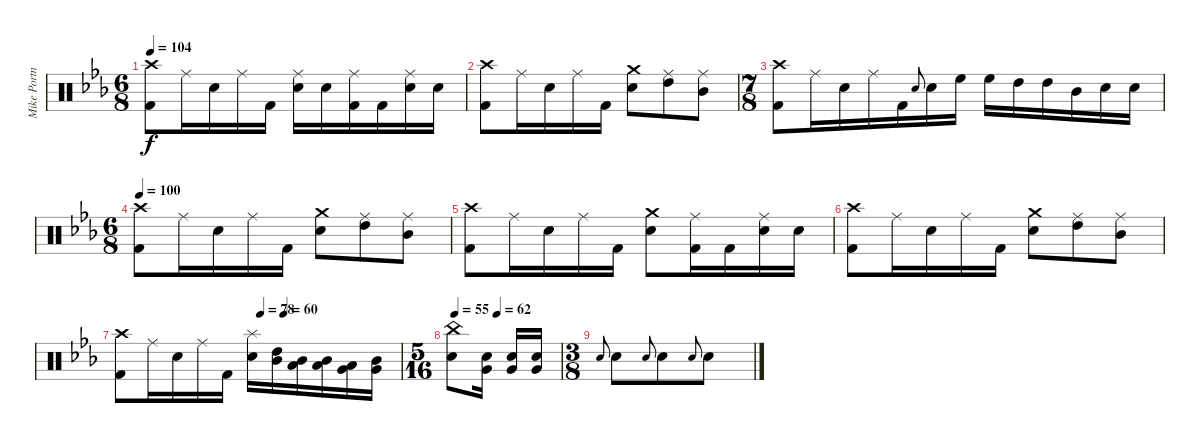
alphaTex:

\track ("Mike Portnoy" "Mike Portn") {instrument percussion}
\staff {score}
\articulation defaults
\ts (6 8)
\tempo 104
\clef neutral
\ks eb
("Crash high (hit)" "Kick (hit) 2").8{dy f} "Ride (middle)".16 "Electric Snare (hit)".16 "Ride (middle)".16 "Kick (hit) 2".16 ("Ride (middle)" "Electric Snare (hit)").16 "Electric Snare (hit)".16 ("Ride (middle)" "Kick (hit) 2").16 "Kick (hit) 2".16 ("Ride (middle)" "Electric Snare (hit)").16 "Electric Snare (hit)".16 |
("Crash high (hit)" "Kick (hit) 2").8 "Ride (middle)".16 "Electric Snare (hit)".16 "Ride (middle)".16 "Kick (hit) 2".16 ("Crash medium (hit)" "Electric Snare (hit)").8 ("Ride (middle)" "High Tom (hit)").8 ("Ride (middle)" "Mid Tom (hit)").8 |
\ts (7 8)
("Crash high (hit)" "Kick (hit) 2").8 "Ride (middle)".16 "Electric Snare (hit)".16 "Ride (middle)".16 "Kick (hit) 2".16 "Electric Snare (hit)".8{gr onbeat} "Electric Snare (hit)".16 "High Floor Tom (hit)".16 "High Floor Tom (hit)".16 "High Tom (hit)".16 "High Tom (hit)".16 "Mid Tom (hit)".16 "Electric Snare (hit)".16 "Electric Snare (hit)".16 |
\ts (6 8)
\tempo 100
("Crash high (hit)" "Kick (hit) 2").8 "Ride (middle)".16 "Electric Snare (hit)".16 "Ride (middle)".16 "Kick (hit) 2".16 ("Crash medium (hit)" "Electric Snare (hit)").8 ("Ride (middle)" "High Tom (hit)").8 ("Ride (middle)" "Mid Tom (hit)").8 |
("Crash high (hit)" "Kick (hit) 2").8 "Ride (middle)".16 "Electric Snare (hit)".16 "Ride (middle)".16 "Kick (hit) 2".16 ("Crash medium (hit)" "Electric Snare (hit)").8 ("Ride (middle)" "Kick (hit) 2").16 "Kick (hit) 2".16 ("Ride (middle)" "Electric Snare (hit)").16 "Electric Snare (hit)".16 |
("Crash high (hit)" "Kick (hit) 2").8 "Ride (middle)".16 "Electric Snare (hit)".16 "Ride (middle)".16 "Kick (hit) 2".16 ("Crash medium (hit)" "Electric Snare (hit)").8 ("Ride (middle)" "High Tom (hit)").8 ("Ride (middle)" "Mid Tom (hit)").8 |
\tempo (78 0.5)
\tempo (60 0.5833333333333334)
("Crash high (hit)" "Kick (hit) 2").8 "Ride (middle)".16 "Electric Snare (hit)".16 "Ride (middle)".16 "Kick (hit) 2".16 ("Splash (hit)" "Electric Snare (hit)").16 ("High Tom (hit)" "Mid Tom (hit)").16 ("Low Tom (hit)" "Mid Tom (hit)").16 ("Low Tom (hit)" "Mid Tom (hit)").16 ("Low Tom (hit)" "Very Low Tom (hit)").16 ("Mid Tom (hit)" "Very Low Tom (hit)").16 |
\ts (5 16)
\tempo 55
\tempo (62 0.4)
("China (hit)" "Electric Snare (hit)").8 ("Very Low Tom (hit)" "Electric Snare (hit)").16 ("Very Low Tom (hit)" "Electric Snare (hit)").16 ("Very Low Tom (hit)" "Electric Snare (hit)").16 |
\ts (3 8)
"Electric Snare (hit)".8{gr onbeat} "Electric Snare (hit)".8 "Electric Snare (hit)".8{gr onbeat} "Electric Snare (hit)".8 "Electric Snare (hit)".8{gr onbeat} "Electric Snare (hit)".8
